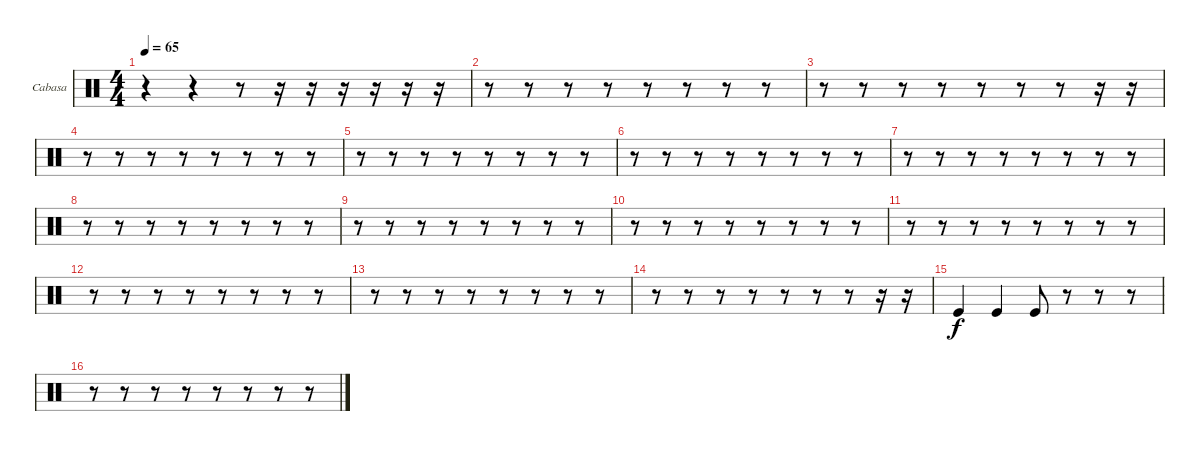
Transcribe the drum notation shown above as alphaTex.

\bracketExtendMode groupsimilarinstruments
\firstSystemTrackNameOrientation horizontal
\otherSystemsTrackNameOrientation horizontal
\track ("Cabasa" "Cabasa") {instrument percussion}
\staff {score}
\articulation defaults
\ts (4 4)
\tempo 65
\clef neutral
\ks c
r.4{dy f} r.4 r.8 r.16 r.16 r.16 r.16 r.16 r.16 |
r.8 r.8 r.8 r.8 r.8 r.8 r.8 r.8 |
r.8 r.8 r.8 r.8 r.8 r.8 r.8 r.16 r.16 |
r.8 r.8 r.8 r.8 r.8 r.8 r.8 r.8 |
r.8 r.8 r.8 r.8 r.8 r.8 r.8 r.8 |
r.8 r.8 r.8 r.8 r.8 r.8 r.8 r.8 |
r.8 r.8 r.8 r.8 r.8 r.8 r.8 r.8 |
r.8 r.8 r.8 r.8 r.8 r.8 r.8 r.8 |
r.8 r.8 r.8 r.8 r.8 r.8 r.8 r.8 |
r.8 r.8 r.8 r.8 r.8 r.8 r.8 r.8 |
r.8 r.8 r.8 r.8 r.8 r.8 r.8 r.8 |
r.8 r.8 r.8 r.8 r.8 r.8 r.8 r.8 |
r.8 r.8 r.8 r.8 r.8 r.8 r.8 r.8 |
r.8 r.8 r.8 r.8 r.8 r.8 r.8 r.16 r.16 |
"Kick (hit)".4 "Kick (hit)".4 "Kick (hit)".8 r.8 r.8 r.8 |
r.8 r.8 r.8 r.8 r.8 r.8 r.8 r.8
